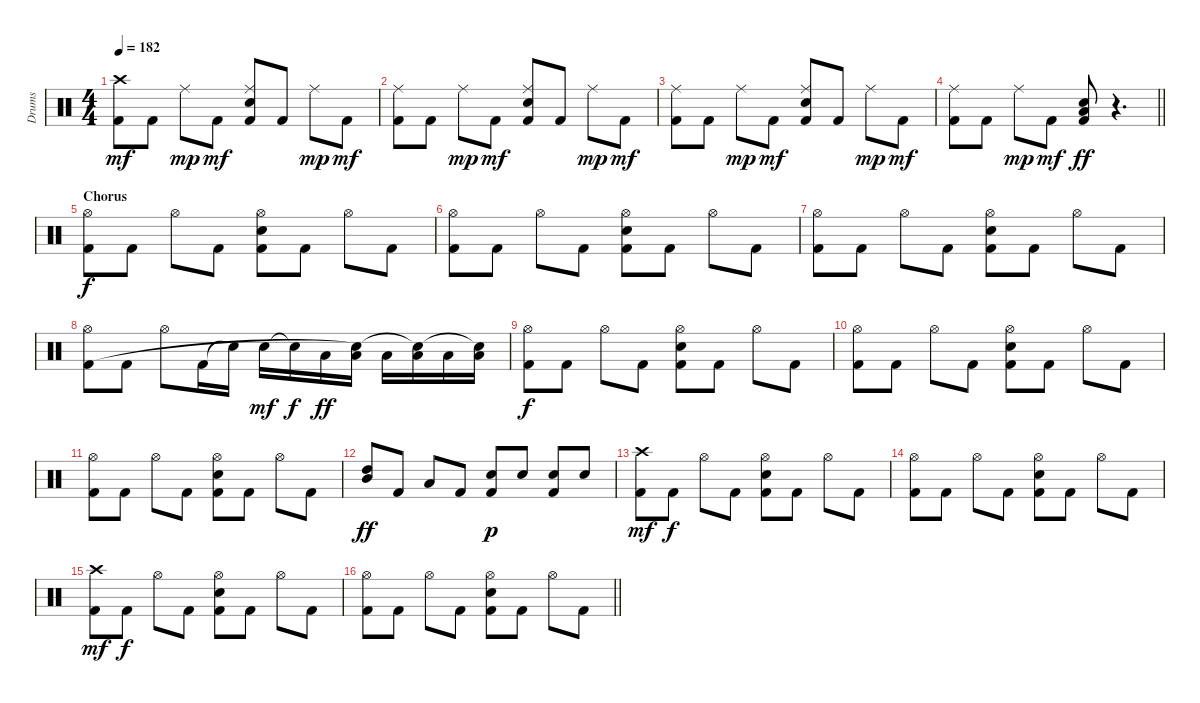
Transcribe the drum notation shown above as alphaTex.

\track ("Drums" "Drums") {instrument percussion}
\staff {score}
\articulation defaults
\ts (4 4)
\tempo 182
\clef neutral
\ks c
("Crash high (hit)" "Kick (hit) 2").8{dy mf} "Kick (hit) 2".8 "Ride (middle)".8{dy mp} "Kick (hit) 2".8{dy mf} ("Ride (middle)" "Snare (hit) 2" "Kick (hit) 2").8 "Kick (hit) 2".8 "Ride (middle)".8{dy mp} "Kick (hit) 2".8{dy mf} |
("Ride (middle)" "Kick (hit) 2").8 "Kick (hit) 2".8 "Ride (middle)".8{dy mp} "Kick (hit) 2".8{dy mf} ("Ride (middle)" "Snare (hit) 2" "Kick (hit) 2").8 "Kick (hit) 2".8 "Ride (middle)".8{dy mp} "Kick (hit) 2".8{dy mf} |
("Ride (middle)" "Kick (hit) 2").8 "Kick (hit) 2".8 "Ride (middle)".8{dy mp} "Kick (hit) 2".8{dy mf} ("Ride (middle)" "Snare (hit) 2" "Kick (hit) 2").8 "Kick (hit) 2".8 "Ride (middle)".8{dy mp} "Kick (hit) 2".8{dy mf} |
\barLineRight lightlight
("Ride (middle)" "Kick (hit) 2").8 "Kick (hit) 2".8 "Ride (middle)".8{dy mp} "Kick (hit) 2".8{dy mf} ("Snare (hit) 2" "Low Floor Tom (hit)" "Kick (hit) 2").8{dy ff} r.4{d} |
\section ("" "Chorus")
("Hi-Hat (open)" "Kick (hit) 2").8{dy f} "Kick (hit) 2".8 "Hi-Hat (open)".8 "Kick (hit) 2".8 ("Hi-Hat (open)" "Snare (hit) 2" "Kick (hit) 2").8 "Kick (hit) 2".8 "Hi-Hat (open)".8 "Kick (hit) 2".8 |
("Hi-Hat (open)" "Kick (hit) 2").8 "Kick (hit) 2".8 "Hi-Hat (open)".8 "Kick (hit) 2".8 ("Hi-Hat (open)" "Snare (hit) 2" "Kick (hit) 2").8 "Kick (hit) 2".8 "Hi-Hat (open)".8 "Kick (hit) 2".8 |
("Hi-Hat (open)" "Kick (hit) 2").8 "Kick (hit) 2".8 "Hi-Hat (open)".8 "Kick (hit) 2".8 ("Hi-Hat (open)" "Snare (hit) 2" "Kick (hit) 2").8 "Kick (hit) 2".8 "Hi-Hat (open)".8 "Kick (hit) 2".8 |
("Hi-Hat (open)" "Kick (hit) 2").8 "Kick (hit) 2".8 "Hi-Hat (open)".8 "Kick (hit) 2".16 "Snare (hit)"{t}.16 "Snare (hit) 2".16{dy mf} "Snare (hit)"{t}.16{dy f} "Low Floor Tom (hit)".16{dy ff} ("Low Floor Tom (hit)" "Snare (hit)"{t}).16 "Low Floor Tom (hit)".16 ("Low Floor Tom (hit)" "Snare (hit)"{t}).16 "Low Floor Tom (hit)".16 ("Low Floor Tom (hit)" "Snare (hit)"{t}).16 |
("Hi-Hat (open)" "Kick (hit) 2").8{dy f} "Kick (hit) 2".8 "Hi-Hat (open)".8 "Kick (hit) 2".8 ("Hi-Hat (open)" "Snare (hit) 2" "Kick (hit) 2").8 "Kick (hit) 2".8 "Hi-Hat (open)".8 "Kick (hit) 2".8 |
("Hi-Hat (open)" "Kick (hit) 2").8 "Kick (hit) 2".8 "Hi-Hat (open)".8 "Kick (hit) 2".8 ("Hi-Hat (open)" "Snare (hit) 2" "Kick (hit) 2").8 "Kick (hit) 2".8 "Hi-Hat (open)".8 "Kick (hit) 2".8 |
("Hi-Hat (open)" "Kick (hit) 2").8 "Kick (hit) 2".8 "Hi-Hat (open)".8 "Kick (hit) 2".8 ("Hi-Hat (open)" "Snare (hit) 2" "Kick (hit) 2").8 "Kick (hit) 2".8 "Hi-Hat (open)".8 "Kick (hit) 2".8 |
("Mid Tom (hit)" "High Tom (hit)").8{dy ff} "Kick (hit) 2".8 "Low Floor Tom (hit)".8 "Kick (hit) 2".8 ("Snare (hit) 2" "Kick (hit) 2").8{dy p} "Snare (hit) 2".8 ("Snare (hit) 2" "Kick (hit) 2").8 "Snare (hit) 2".8 |
("Crash high (hit)" "Kick (hit) 2").8{dy mf} "Kick (hit) 2".8{dy f} "Hi-Hat (open)".8 "Kick (hit) 2".8 ("Hi-Hat (open)" "Snare (hit) 2" "Kick (hit) 2").8 "Kick (hit) 2".8 "Hi-Hat (open)".8 "Kick (hit) 2".8 |
("Hi-Hat (open)" "Kick (hit) 2").8 "Kick (hit) 2".8 "Hi-Hat (open)".8 "Kick (hit) 2".8 ("Hi-Hat (open)" "Snare (hit) 2" "Kick (hit) 2").8 "Kick (hit) 2".8 "Hi-Hat (open)".8 "Kick (hit) 2".8 |
("Crash high (hit)" "Kick (hit) 2").8{dy mf} "Kick (hit) 2".8{dy f} "Hi-Hat (open)".8 "Kick (hit) 2".8 ("Hi-Hat (open)" "Snare (hit) 2" "Kick (hit) 2").8 "Kick (hit) 2".8 "Hi-Hat (open)".8 "Kick (hit) 2".8 |
\barLineRight lightlight
("Hi-Hat (open)" "Kick (hit) 2").8 "Kick (hit) 2".8 "Hi-Hat (open)".8 "Kick (hit) 2".8 ("Hi-Hat (open)" "Snare (hit) 2" "Kick (hit) 2").8 "Kick (hit) 2".8 "Hi-Hat (open)".8 "Kick (hit) 2".8
